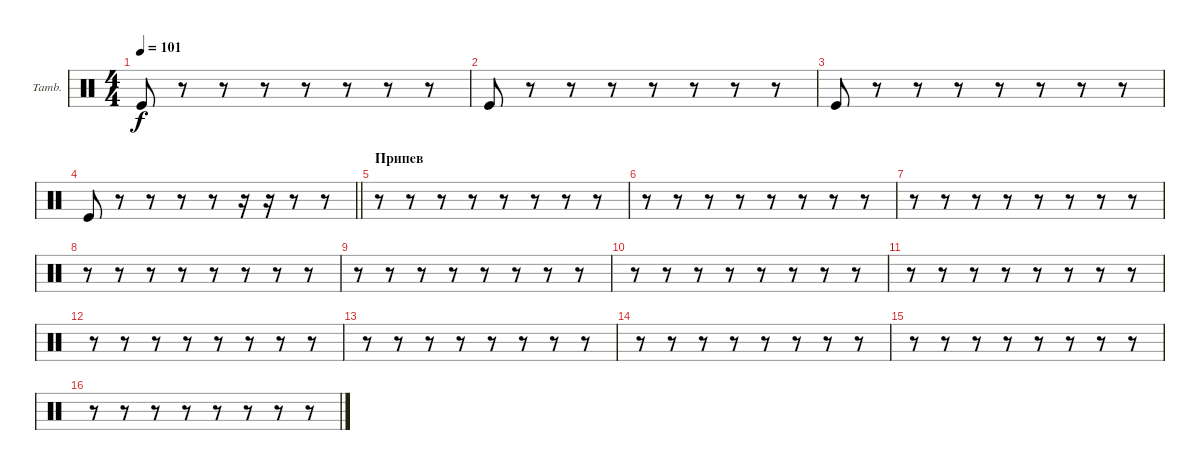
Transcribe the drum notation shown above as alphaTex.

\bracketExtendMode groupsimilarinstruments
\firstSystemTrackNameOrientation horizontal
\otherSystemsTrackNameOrientation horizontal
\track ("Tambourine" "Tamb.") {instrument percussion}
\staff {score}
\articulation defaults
\ts (4 4)
\tempo 101
\clef neutral
\ks c "Kick (hit)".8{dy f}
r.8 r.8 r.8 r.8 r.8 r.8 r.8 |
"Kick (hit)".8 r.8 r.8 r.8 r.8 r.8 r.8 r.8 |
"Kick (hit)".8 r.8 r.8 r.8 r.8 r.8 r.8 r.8 |
\barLineRight lightlight "Kick (hit)".8
r.8 r.8 r.8 r.8 r.16 r.16 r.8 r.8 |
\section ("" "Припев")
r.8 r.8 r.8 r.8 r.8 r.8 r.8 r.8 |
r.8 r.8 r.8 r.8 r.8 r.8 r.8 r.8 |
r.8 r.8 r.8 r.8 r.8 r.8 r.8 r.8 |
r.8 r.8 r.8 r.8 r.8 r.8 r.8 r.8 |
r.8 r.8 r.8 r.8 r.8 r.8 r.8 r.8 |
r.8 r.8 r.8 r.8 r.8 r.8 r.8 r.8 |
r.8 r.8 r.8 r.8 r.8 r.8 r.8 r.8 |
r.8 r.8 r.8 r.8 r.8 r.8 r.8 r.8 |
r.8 r.8 r.8 r.8 r.8 r.8 r.8 r.8 |
r.8 r.8 r.8 r.8 r.8 r.8 r.8 r.8 |
r.8 r.8 r.8 r.8 r.8 r.8 r.8 r.8 |
r.8 r.8 r.8 r.8 r.8 r.8 r.8 r.8
